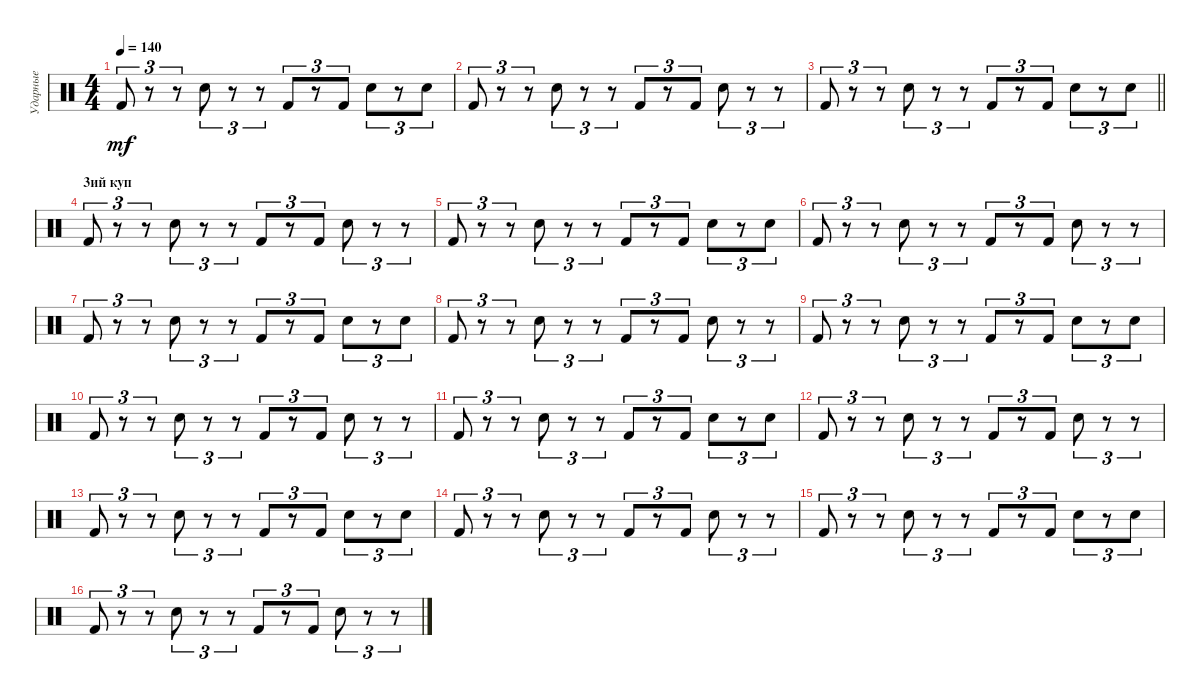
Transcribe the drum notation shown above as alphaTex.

\track ("Ударные" "Ударные") {instrument percussion}
\staff {score}
\articulation defaults
\ts (4 4)
\tempo 140
\clef neutral
\ks c "Kick (hit) 2".8{tu (3 2) dy mf}
r.8{tu (3 2)} r.8{tu (3 2)} "Electric Snare (hit)".8{tu (3 2)} r.8{tu (3 2)} r.8{tu (3 2)} "Kick (hit) 2".8{tu (3 2)} r.8{tu (3 2)} "Kick (hit) 2".8{tu (3 2)} "Electric Snare (hit)".8{tu (3 2)} r.8{tu (3 2)} "Electric Snare (hit)".8{tu (3 2)} |
"Kick (hit) 2".8{tu (3 2)} r.8{tu (3 2)} r.8{tu (3 2)} "Electric Snare (hit)".8{tu (3 2)} r.8{tu (3 2)} r.8{tu (3 2)} "Kick (hit) 2".8{tu (3 2)} r.8{tu (3 2)} "Kick (hit) 2".8{tu (3 2)} "Electric Snare (hit)".8{tu (3 2)} r.8{tu (3 2)} r.8{tu (3 2)} |
\barLineRight lightlight "Kick (hit) 2".8{tu (3 2)}
r.8{tu (3 2)} r.8{tu (3 2)} "Electric Snare (hit)".8{tu (3 2)} r.8{tu (3 2)} r.8{tu (3 2)} "Kick (hit) 2".8{tu (3 2)} r.8{tu (3 2)} "Kick (hit) 2".8{tu (3 2)} "Electric Snare (hit)".8{tu (3 2)} r.8{tu (3 2)} "Electric Snare (hit)".8{tu (3 2)} |
\section ("" "3ий куп")
"Kick (hit) 2".8{tu (3 2)} r.8{tu (3 2)} r.8{tu (3 2)} "Electric Snare (hit)".8{tu (3 2)} r.8{tu (3 2)} r.8{tu (3 2)} "Kick (hit) 2".8{tu (3 2)} r.8{tu (3 2)} "Kick (hit) 2".8{tu (3 2)} "Electric Snare (hit)".8{tu (3 2)} r.8{tu (3 2)} r.8{tu (3 2)} |
"Kick (hit) 2".8{tu (3 2)} r.8{tu (3 2)} r.8{tu (3 2)} "Electric Snare (hit)".8{tu (3 2)} r.8{tu (3 2)} r.8{tu (3 2)} "Kick (hit) 2".8{tu (3 2)} r.8{tu (3 2)} "Kick (hit) 2".8{tu (3 2)} "Electric Snare (hit)".8{tu (3 2)} r.8{tu (3 2)} "Electric Snare (hit)".8{tu (3 2)} |
"Kick (hit) 2".8{tu (3 2)} r.8{tu (3 2)} r.8{tu (3 2)} "Electric Snare (hit)".8{tu (3 2)} r.8{tu (3 2)} r.8{tu (3 2)} "Kick (hit) 2".8{tu (3 2)} r.8{tu (3 2)} "Kick (hit) 2".8{tu (3 2)} "Electric Snare (hit)".8{tu (3 2)} r.8{tu (3 2)} r.8{tu (3 2)} |
"Kick (hit) 2".8{tu (3 2)} r.8{tu (3 2)} r.8{tu (3 2)} "Electric Snare (hit)".8{tu (3 2)} r.8{tu (3 2)} r.8{tu (3 2)} "Kick (hit) 2".8{tu (3 2)} r.8{tu (3 2)} "Kick (hit) 2".8{tu (3 2)} "Electric Snare (hit)".8{tu (3 2)} r.8{tu (3 2)} "Electric Snare (hit)".8{tu (3 2)} |
"Kick (hit) 2".8{tu (3 2)} r.8{tu (3 2)} r.8{tu (3 2)} "Electric Snare (hit)".8{tu (3 2)} r.8{tu (3 2)} r.8{tu (3 2)} "Kick (hit) 2".8{tu (3 2)} r.8{tu (3 2)} "Kick (hit) 2".8{tu (3 2)} "Electric Snare (hit)".8{tu (3 2)} r.8{tu (3 2)} r.8{tu (3 2)} |
"Kick (hit) 2".8{tu (3 2)} r.8{tu (3 2)} r.8{tu (3 2)} "Electric Snare (hit)".8{tu (3 2)} r.8{tu (3 2)} r.8{tu (3 2)} "Kick (hit) 2".8{tu (3 2)} r.8{tu (3 2)} "Kick (hit) 2".8{tu (3 2)} "Electric Snare (hit)".8{tu (3 2)} r.8{tu (3 2)} "Electric Snare (hit)".8{tu (3 2)} |
"Kick (hit) 2".8{tu (3 2)} r.8{tu (3 2)} r.8{tu (3 2)} "Electric Snare (hit)".8{tu (3 2)} r.8{tu (3 2)} r.8{tu (3 2)} "Kick (hit) 2".8{tu (3 2)} r.8{tu (3 2)} "Kick (hit) 2".8{tu (3 2)} "Electric Snare (hit)".8{tu (3 2)} r.8{tu (3 2)} r.8{tu (3 2)} |
"Kick (hit) 2".8{tu (3 2)} r.8{tu (3 2)} r.8{tu (3 2)} "Electric Snare (hit)".8{tu (3 2)} r.8{tu (3 2)} r.8{tu (3 2)} "Kick (hit) 2".8{tu (3 2)} r.8{tu (3 2)} "Kick (hit) 2".8{tu (3 2)} "Electric Snare (hit)".8{tu (3 2)} r.8{tu (3 2)} "Electric Snare (hit)".8{tu (3 2)} |
"Kick (hit) 2".8{tu (3 2)} r.8{tu (3 2)} r.8{tu (3 2)} "Electric Snare (hit)".8{tu (3 2)} r.8{tu (3 2)} r.8{tu (3 2)} "Kick (hit) 2".8{tu (3 2)} r.8{tu (3 2)} "Kick (hit) 2".8{tu (3 2)} "Electric Snare (hit)".8{tu (3 2)} r.8{tu (3 2)} r.8{tu (3 2)} |
"Kick (hit) 2".8{tu (3 2)} r.8{tu (3 2)} r.8{tu (3 2)} "Electric Snare (hit)".8{tu (3 2)} r.8{tu (3 2)} r.8{tu (3 2)} "Kick (hit) 2".8{tu (3 2)} r.8{tu (3 2)} "Kick (hit) 2".8{tu (3 2)} "Electric Snare (hit)".8{tu (3 2)} r.8{tu (3 2)} "Electric Snare (hit)".8{tu (3 2)} |
"Kick (hit) 2".8{tu (3 2)} r.8{tu (3 2)} r.8{tu (3 2)} "Electric Snare (hit)".8{tu (3 2)} r.8{tu (3 2)} r.8{tu (3 2)} "Kick (hit) 2".8{tu (3 2)} r.8{tu (3 2)} "Kick (hit) 2".8{tu (3 2)} "Electric Snare (hit)".8{tu (3 2)} r.8{tu (3 2)} r.8{tu (3 2)} |
"Kick (hit) 2".8{tu (3 2)} r.8{tu (3 2)} r.8{tu (3 2)} "Electric Snare (hit)".8{tu (3 2)} r.8{tu (3 2)} r.8{tu (3 2)} "Kick (hit) 2".8{tu (3 2)} r.8{tu (3 2)} "Kick (hit) 2".8{tu (3 2)} "Electric Snare (hit)".8{tu (3 2)} r.8{tu (3 2)} "Electric Snare (hit)".8{tu (3 2)} |
"Kick (hit) 2".8{tu (3 2)} r.8{tu (3 2)} r.8{tu (3 2)} "Electric Snare (hit)".8{tu (3 2)} r.8{tu (3 2)} r.8{tu (3 2)} "Kick (hit) 2".8{tu (3 2)} r.8{tu (3 2)} "Kick (hit) 2".8{tu (3 2)} "Electric Snare (hit)".8{tu (3 2)} r.8{tu (3 2)} r.8{tu (3 2)}
